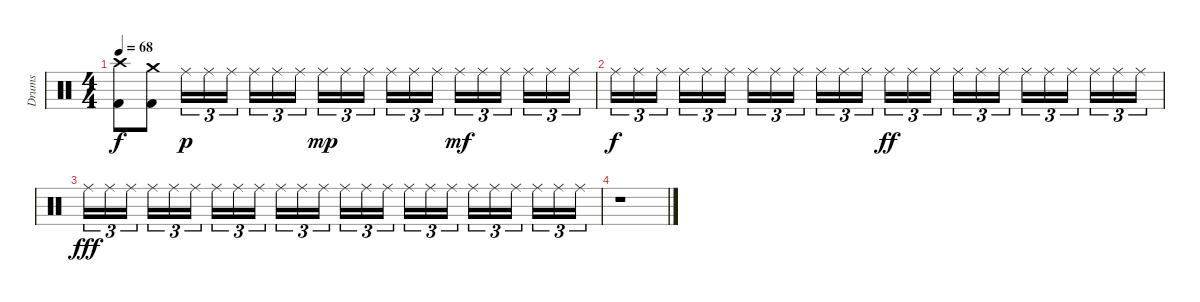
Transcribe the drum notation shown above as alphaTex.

\track ("Drums" "Drums") {instrument percussion}
\staff {score}
\articulation defaults
\ts (4 4)
\tempo 68
\clef neutral
\ks c
("Crash high (hit)" "Kick (hit) 2").8{dy f} ("Crash medium (hit)" "Kick (hit) 2").8 "Ride (middle)".16{tu (3 2) dy p} "Ride (middle)".16{tu (3 2)} "Ride (middle)".16{tu (3 2) beam splitsecondary} "Ride (middle)".16{tu (3 2)} "Ride (middle)".16{tu (3 2)} "Ride (middle)".16{tu (3 2)} "Ride (middle)".16{tu (3 2) dy mp} "Ride (middle)".16{tu (3 2)} "Ride (middle)".16{tu (3 2) beam splitsecondary} "Ride (middle)".16{tu (3 2)} "Ride (middle)".16{tu (3 2)} "Ride (middle)".16{tu (3 2)} "Ride (middle)".16{tu (3 2) dy mf} "Ride (middle)".16{tu (3 2)} "Ride (middle)".16{tu (3 2) beam splitsecondary} "Ride (middle)".16{tu (3 2)} "Ride (middle)".16{tu (3 2)} "Ride (middle)".16{tu (3 2)} |
"Ride (middle)".16{tu (3 2) dy f} "Ride (middle)".16{tu (3 2)} "Ride (middle)".16{tu (3 2) beam splitsecondary} "Ride (middle)".16{tu (3 2)} "Ride (middle)".16{tu (3 2)} "Ride (middle)".16{tu (3 2)} "Ride (middle)".16{tu (3 2)} "Ride (middle)".16{tu (3 2)} "Ride (middle)".16{tu (3 2) beam splitsecondary} "Ride (middle)".16{tu (3 2)} "Ride (middle)".16{tu (3 2)} "Ride (middle)".16{tu (3 2)} "Ride (middle)".16{tu (3 2) dy ff} "Ride (middle)".16{tu (3 2)} "Ride (middle)".16{tu (3 2) beam splitsecondary} "Ride (middle)".16{tu (3 2)} "Ride (middle)".16{tu (3 2)} "Ride (middle)".16{tu (3 2)} "Ride (middle)".16{tu (3 2)} "Ride (middle)".16{tu (3 2)} "Ride (middle)".16{tu (3 2) beam splitsecondary} "Ride (middle)".16{tu (3 2)} "Ride (middle)".16{tu (3 2)} "Ride (middle)".16{tu (3 2)} |
"Ride (middle)".16{tu (3 2) dy fff} "Ride (middle)".16{tu (3 2)} "Ride (middle)".16{tu (3 2) beam splitsecondary} "Ride (middle)".16{tu (3 2)} "Ride (middle)".16{tu (3 2)} "Ride (middle)".16{tu (3 2)} "Ride (middle)".16{tu (3 2)} "Ride (middle)".16{tu (3 2)} "Ride (middle)".16{tu (3 2) beam splitsecondary} "Ride (middle)".16{tu (3 2)} "Ride (middle)".16{tu (3 2)} "Ride (middle)".16{tu (3 2)} "Ride (middle)".16{tu (3 2)} "Ride (middle)".16{tu (3 2)} "Ride (middle)".16{tu (3 2) beam splitsecondary} "Ride (middle)".16{tu (3 2)} "Ride (middle)".16{tu (3 2)} "Ride (middle)".16{tu (3 2)} "Ride (middle)".16{tu (3 2)} "Ride (middle)".16{tu (3 2)} "Ride (middle)".16{tu (3 2) beam splitsecondary} "Ride (middle)".16{tu (3 2)} "Ride (middle)".16{tu (3 2)} "Ride (middle)".16{tu (3 2)} |
r.1
